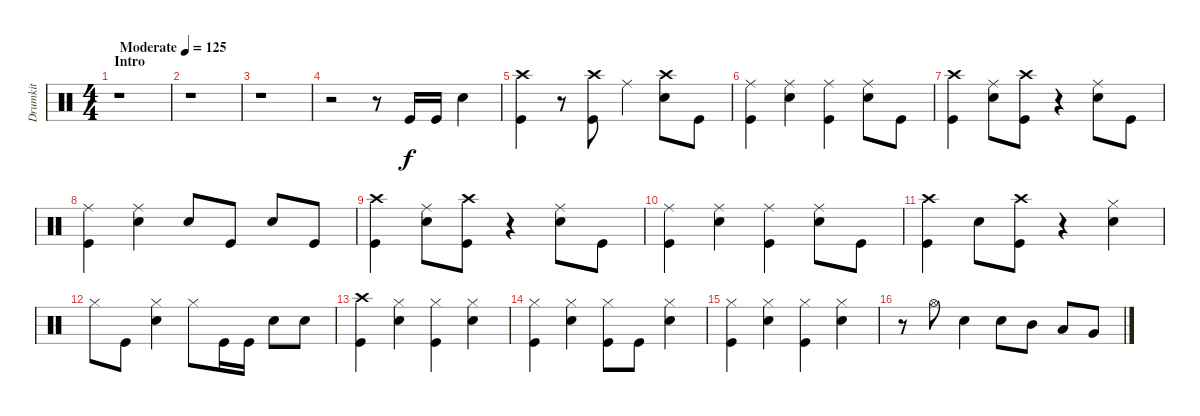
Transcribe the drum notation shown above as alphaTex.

\track ("Drumkit" "Drumkit") {instrument percussion}
\staff {score}
\articulation defaults
\ts (4 4)
\section ("" "Intro")
\tempo (125 "Moderate")
\clef neutral
\ks c
r.1{dy f} |
r.1 |
r.1 |
r.2 r.8 "Kick (hit)".16 "Kick (hit)".16 "Snare (hit) 2".4 |
("Crash high (hit)" "Kick (hit)").4 r.8 ("Crash high (hit)" "Kick (hit)").8 "Ride (middle)".4 ("Crash high (hit)" "Snare (hit) 2").8 "Kick (hit)".8 |
("Ride (middle)" "Kick (hit)").4 ("Ride (middle)" "Snare (hit) 2").4 ("Ride (middle)" "Kick (hit)").4 ("Ride (middle)" "Snare (hit) 2").8 "Kick (hit)".8 |
("Crash high (hit)" "Kick (hit)").4 ("Ride (middle)" "Snare (hit) 2").8 ("Crash high (hit)" "Kick (hit)").8 r.4 ("Ride (middle)" "Snare (hit) 2").8 "Kick (hit)".8 |
("Ride (middle)" "Kick (hit)").4 ("Ride (middle)" "Snare (hit) 2").4 "Snare (hit) 2".8 "Kick (hit)".8 "Snare (hit) 2".8 "Kick (hit)".8 |
("Crash high (hit)" "Kick (hit)").4 ("Ride (middle)" "Snare (hit) 2").8 ("Crash high (hit)" "Kick (hit)").8 r.4 ("Ride (middle)" "Snare (hit) 2").8 "Kick (hit)".8 |
("Ride (middle)" "Kick (hit)").4 ("Ride (middle)" "Snare (hit) 2").4 ("Ride (middle)" "Kick (hit)").4 ("Ride (middle)" "Snare (hit) 2").8 "Kick (hit)".8 |
("Crash high (hit)" "Kick (hit)").4 "Snare (hit) 2".8 ("Crash high (hit)" "Kick (hit)").8 r.4 ("Hi-Hat (closed)" "Snare (hit) 2").4 |
"Hi-Hat (closed)".8 "Kick (hit)".8 ("Hi-Hat (closed)" "Snare (hit) 2").4 "Hi-Hat (closed)".8 "Kick (hit)".16 "Kick (hit)".16 "Snare (hit) 2".8 "Snare (hit) 2".8 |
("Crash high (hit)" "Kick (hit)").4 ("Hi-Hat (closed)" "Snare (hit) 2").4 ("Hi-Hat (closed)" "Kick (hit)").4 ("Hi-Hat (closed)" "Snare (hit) 2").4 |
("Hi-Hat (closed)" "Kick (hit)").4 ("Hi-Hat (closed)" "Snare (hit) 2").4 ("Hi-Hat (closed)" "Kick (hit)").8 "Kick (hit)".8 ("Hi-Hat (closed)" "Snare (hit) 2").4 |
("Hi-Hat (closed)" "Kick (hit)").4 ("Hi-Hat (closed)" "Snare (hit) 2").4 ("Hi-Hat (closed)" "Kick (hit)").4 ("Hi-Hat (closed)" "Snare (hit) 2").4 |
r.8 "Hi-Hat (open)".8 "Snare (hit) 2".4 "Snare (hit) 2".8 "Mid Tom (hit)".8 "Low Tom (hit)".8 "Very Low Tom (hit)".8
